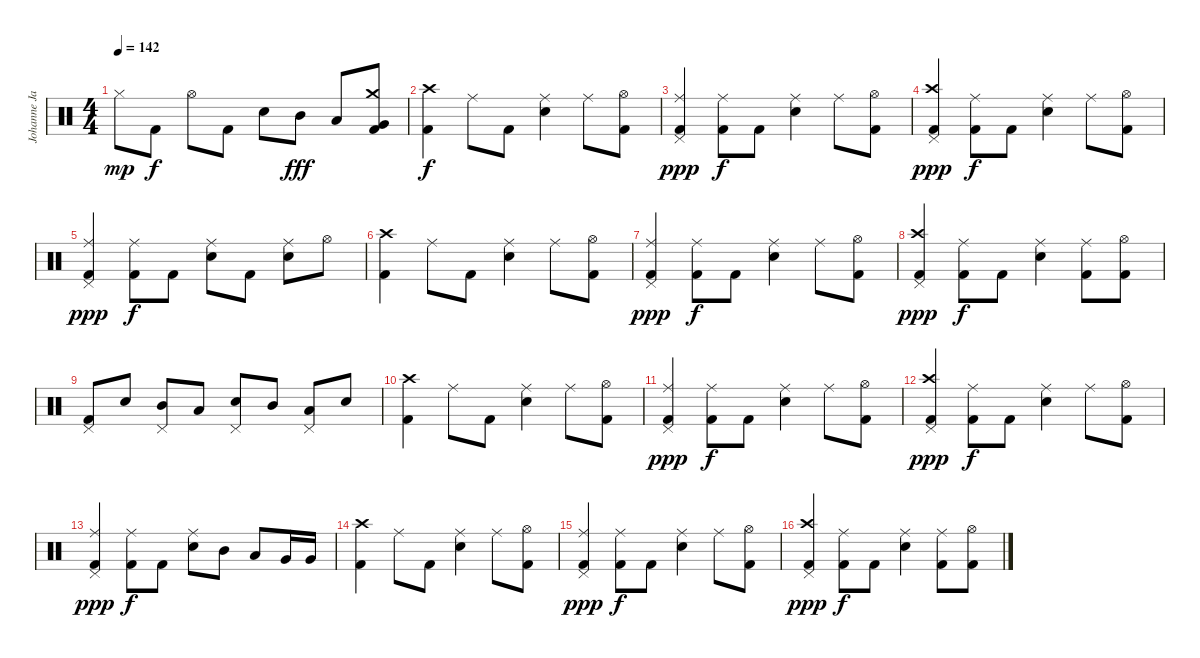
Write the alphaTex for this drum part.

\track ("Johanne James" "Johanne Ja") {instrument percussion}
\staff {score}
\articulation defaults
\ts (4 4)
\tempo 142
\clef neutral
\ks c "Hi-Hat (closed)".8{dy mp} "Kick (hit) 2".8{dy f} "Hi-Hat (open)".8 "Kick (hit) 2".8 "Snare (hit) 2".8 "Mid Tom (hit)".8{dy fff} "Low Tom (hit)".8
("Crash medium (hit)" "Very Low Tom (hit)" "Kick (hit) 2").8 |
("Crash high (hit)" "Kick (hit) 2").4{dy f} "Ride (middle)".8 "Kick (hit) 2".8 ("Ride (middle)" "Snare (hit) 2").4 "Ride (middle)".8 ("Hi-Hat (open)" "Kick (hit) 2").8 |
("Ride (middle)" "Pedal Hi-Hat (hit)" "Kick (hit) 2").4{dy ppp} ("Ride (middle)" "Kick (hit) 2").8{dy f} "Kick (hit) 2".8 ("Ride (middle)" "Snare (hit) 2").4 "Ride (middle)".8 ("Hi-Hat (open)" "Kick (hit) 2").8 |
("Crash high (hit)" "Pedal Hi-Hat (hit)" "Kick (hit) 2").4{dy ppp} ("Ride (middle)" "Kick (hit) 2").8{dy f} "Kick (hit) 2".8 ("Ride (middle)" "Snare (hit) 2").4 "Ride (middle)".8 ("Hi-Hat (open)" "Kick (hit) 2").8 |
("Ride (middle)" "Pedal Hi-Hat (hit)" "Kick (hit) 2").4{dy ppp} ("Ride (middle)" "Kick (hit) 2").8{dy f} "Kick (hit) 2".8 ("Ride (middle)" "Snare (hit) 2").8 "Kick (hit) 2".8 ("Ride (middle)" "Snare (hit) 2").8 "Hi-Hat (open)".8 |
("Crash high (hit)" "Kick (hit) 2").4 "Ride (middle)".8 "Kick (hit) 2".8 ("Ride (middle)" "Snare (hit) 2").4 "Ride (middle)".8 ("Hi-Hat (open)" "Kick (hit) 2").8 |
("Ride (middle)" "Pedal Hi-Hat (hit)" "Kick (hit) 2").4{dy ppp} ("Ride (middle)" "Kick (hit) 2").8{dy f} "Kick (hit) 2".8 ("Ride (middle)" "Snare (hit) 2").4 "Ride (middle)".8 ("Hi-Hat (open)" "Kick (hit) 2").8 |
("Crash high (hit)" "Pedal Hi-Hat (hit)" "Kick (hit) 2").4{dy ppp} ("Ride (middle)" "Kick (hit) 2").8{dy f} "Kick (hit) 2".8 ("Ride (middle)" "Snare (hit) 2").4 ("Ride (middle)" "Kick (hit) 2").8 ("Hi-Hat (open)" "Kick (hit) 2").8 |
("Pedal Hi-Hat (hit)" "Kick (hit) 2").8 "Snare (hit) 2".8 ("Pedal Hi-Hat (hit)" "Mid Tom (hit)").8 "Low Tom (hit)".8 ("Pedal Hi-Hat (hit)" "Snare (hit) 2").8 "Mid Tom (hit)".8 ("Pedal Hi-Hat (hit)" "Low Tom (hit)").8 "Snare (hit) 2".8 |
("Crash high (hit)" "Kick (hit) 2").4 "Ride (middle)".8 "Kick (hit) 2".8 ("Ride (middle)" "Snare (hit) 2").4 "Ride (middle)".8 ("Hi-Hat (open)" "Kick (hit) 2").8 |
("Ride (middle)" "Pedal Hi-Hat (hit)" "Kick (hit) 2").4{dy ppp} ("Ride (middle)" "Kick (hit) 2").8{dy f} "Kick (hit) 2".8 ("Ride (middle)" "Snare (hit) 2").4 "Ride (middle)".8 ("Hi-Hat (open)" "Kick (hit) 2").8 |
("Crash high (hit)" "Pedal Hi-Hat (hit)" "Kick (hit) 2").4{dy ppp} ("Ride (middle)" "Kick (hit) 2").8{dy f} "Kick (hit) 2".8 ("Ride (middle)" "Snare (hit) 2").4 "Ride (middle)".8 ("Hi-Hat (open)" "Kick (hit) 2").8 |
("Ride (middle)" "Pedal Hi-Hat (hit)" "Kick (hit) 2").4{dy ppp} ("Ride (middle)" "Kick (hit) 2").8{dy f} "Kick (hit) 2".8 ("Ride (middle)" "Snare (hit) 2").8 "Mid Tom (hit)".8 "Low Tom (hit)".8 "Very Low Tom (hit)".16 "Very Low Tom (hit)".16 |
("Crash high (hit)" "Kick (hit) 2").4 "Ride (middle)".8 "Kick (hit) 2".8 ("Ride (middle)" "Snare (hit) 2").4 "Ride (middle)".8 ("Hi-Hat (open)" "Kick (hit) 2").8 |
("Ride (middle)" "Pedal Hi-Hat (hit)" "Kick (hit) 2").4{dy ppp} ("Ride (middle)" "Kick (hit) 2").8{dy f} "Kick (hit) 2".8 ("Ride (middle)" "Snare (hit) 2").4 "Ride (middle)".8 ("Hi-Hat (open)" "Kick (hit) 2").8 |
("Crash high (hit)" "Pedal Hi-Hat (hit)" "Kick (hit) 2").4{dy ppp} ("Ride (middle)" "Kick (hit) 2").8{dy f} "Kick (hit) 2".8 ("Ride (middle)" "Snare (hit) 2").4 ("Ride (middle)" "Kick (hit) 2").8 ("Hi-Hat (open)" "Kick (hit) 2").8
